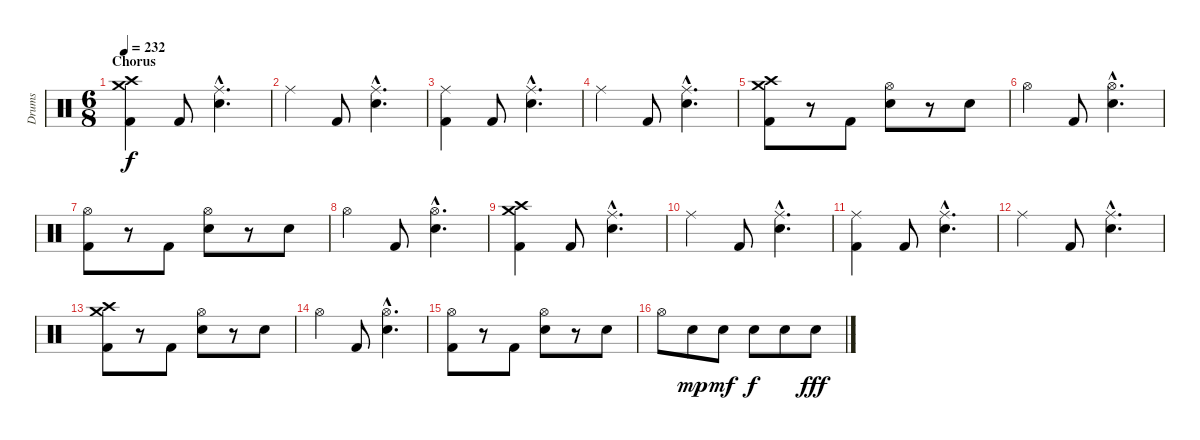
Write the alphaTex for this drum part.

\track ("Drums" "Drums") {instrument percussion}
\staff {score}
\articulation defaults
\ts (6 8)
\section ("" "Chorus")
\tempo 232
\clef neutral
\ks c
("Crash medium (hit)" "Crash high (hit)" "Kick (hit) 2").4{dy f} "Kick (hit) 2".8 ("Ride (middle)"{hac} "Snare (hit) 2"{hac}).4{d} |
"Ride (middle)".4 "Kick (hit) 2".8 ("Ride (middle)"{hac} "Snare (hit) 2"{hac}).4{d} |
("Ride (middle)" "Kick (hit) 2").4 "Kick (hit) 2".8 ("Ride (middle)"{hac} "Snare (hit) 2"{hac}).4{d} |
"Ride (middle)".4 "Kick (hit) 2".8 ("Ride (middle)"{hac} "Snare (hit) 2"{hac}).4{d} |
("Crash medium (hit)" "Crash high (hit)" "Kick (hit) 2").8 r.8 "Kick (hit) 2".8 ("Hi-Hat (open)" "Snare (hit) 2").8 r.8 "Snare (hit) 2".8 |
"Hi-Hat (open)".4 "Kick (hit) 2".8 ("Hi-Hat (open)"{hac} "Snare (hit) 2"{hac}).4{d} |
("Hi-Hat (open)" "Kick (hit) 2").8 r.8 "Kick (hit) 2".8 ("Hi-Hat (open)" "Snare (hit) 2").8 r.8 "Snare (hit) 2".8 |
"Hi-Hat (open)".4 "Kick (hit) 2".8 ("Hi-Hat (open)"{hac} "Snare (hit) 2"{hac}).4{d} |
("Crash medium (hit)" "Crash high (hit)" "Kick (hit) 2").4 "Kick (hit) 2".8 ("Ride (middle)"{hac} "Snare (hit) 2"{hac}).4{d} |
"Ride (middle)".4 "Kick (hit) 2".8 ("Ride (middle)"{hac} "Snare (hit) 2"{hac}).4{d} |
("Ride (middle)" "Kick (hit) 2").4 "Kick (hit) 2".8 ("Ride (middle)"{hac} "Snare (hit) 2"{hac}).4{d} |
"Ride (middle)".4 "Kick (hit) 2".8 ("Ride (middle)"{hac} "Snare (hit) 2"{hac}).4{d} |
("Crash medium (hit)" "Crash high (hit)" "Kick (hit) 2").8 r.8 "Kick (hit) 2".8 ("Hi-Hat (open)" "Snare (hit) 2").8 r.8 "Snare (hit) 2".8 |
"Hi-Hat (open)".4 "Kick (hit) 2".8 ("Hi-Hat (open)"{hac} "Snare (hit) 2"{hac}).4{d} |
("Hi-Hat (open)" "Kick (hit) 2").8 r.8 "Kick (hit) 2".8 ("Hi-Hat (open)" "Snare (hit) 2").8 r.8 "Snare (hit) 2".8 |
"Hi-Hat (open)".8 "Snare (hit) 2".8{dy mp} "Snare (hit) 2".8{dy mf} "Snare (hit) 2".8{dy f} "Snare (hit) 2".8 "Snare (hit) 2".8{dy fff}
